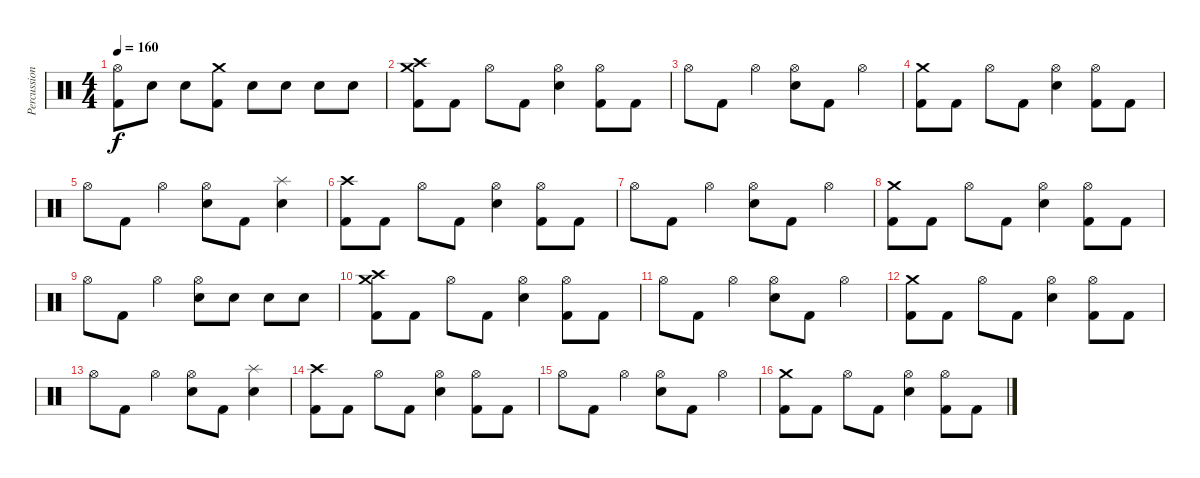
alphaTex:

\track ("Percussioni" "Percussion") {instrument percussion}
\staff {score}
\articulation defaults
\ts (4 4)
\tempo 160
\clef neutral
\ks c
("Hi-Hat (open)" "Kick (hit) 2").8{dy f} "Electric Snare (hit)".8 "Electric Snare (hit)".8 ("Crash medium (hit)" "Kick (hit) 2").8 "Electric Snare (hit)".8 "Electric Snare (hit)".8 "Electric Snare (hit)".8 "Electric Snare (hit)".8 |
("Crash high (hit)" "Crash medium (hit)" "Kick (hit) 2").8 "Kick (hit) 2".8 "Hi-Hat (open)".8 "Kick (hit) 2".8 ("Hi-Hat (open)" "Electric Snare (hit)").4 ("Hi-Hat (open)" "Kick (hit) 2").8 "Kick (hit) 2".8 |
"Hi-Hat (open)".8 "Kick (hit) 2".8 "Hi-Hat (open)".4 ("Hi-Hat (open)" "Electric Snare (hit)").8 "Kick (hit) 2".8 "Hi-Hat (open)".4 |
("Crash medium (hit)" "Kick (hit) 2").8 "Kick (hit) 2".8 "Hi-Hat (open)".8 "Kick (hit) 2".8 ("Hi-Hat (open)" "Electric Snare (hit)").4 ("Hi-Hat (open)" "Kick (hit) 2").8 "Kick (hit) 2".8 |
"Hi-Hat (open)".8 "Kick (hit) 2".8 "Hi-Hat (open)".4 ("Hi-Hat (open)" "Electric Snare (hit)").8 "Kick (hit) 2".8 ("Splash (hit)" "Electric Snare (hit)").4 |
("Crash high (hit)" "Kick (hit) 2").8 "Kick (hit) 2".8 "Hi-Hat (open)".8 "Kick (hit) 2".8 ("Hi-Hat (open)" "Electric Snare (hit)").4 ("Hi-Hat (open)" "Kick (hit) 2").8 "Kick (hit) 2".8 |
"Hi-Hat (open)".8 "Kick (hit) 2".8 "Hi-Hat (open)".4 ("Hi-Hat (open)" "Electric Snare (hit)").8 "Kick (hit) 2".8 "Hi-Hat (open)".4 |
("Crash medium (hit)" "Kick (hit) 2").8 "Kick (hit) 2".8 "Hi-Hat (open)".8 "Kick (hit) 2".8 ("Hi-Hat (open)" "Electric Snare (hit)").4 ("Hi-Hat (open)" "Kick (hit) 2").8 "Kick (hit) 2".8 |
"Hi-Hat (open)".8 "Kick (hit) 2".8 "Hi-Hat (open)".4 ("Hi-Hat (open)" "Electric Snare (hit)").8 "Electric Snare (hit)".8 "Electric Snare (hit)".8 "Electric Snare (hit)".8 |
("Crash high (hit)" "Crash medium (hit)" "Kick (hit) 2").8 "Kick (hit) 2".8 "Hi-Hat (open)".8 "Kick (hit) 2".8 ("Hi-Hat (open)" "Electric Snare (hit)").4 ("Hi-Hat (open)" "Kick (hit) 2").8 "Kick (hit) 2".8 |
"Hi-Hat (open)".8 "Kick (hit) 2".8 "Hi-Hat (open)".4 ("Hi-Hat (open)" "Electric Snare (hit)").8 "Kick (hit) 2".8 "Hi-Hat (open)".4 |
("Crash medium (hit)" "Kick (hit) 2").8 "Kick (hit) 2".8 "Hi-Hat (open)".8 "Kick (hit) 2".8 ("Hi-Hat (open)" "Electric Snare (hit)").4 ("Hi-Hat (open)" "Kick (hit) 2").8 "Kick (hit) 2".8 |
"Hi-Hat (open)".8 "Kick (hit) 2".8 "Hi-Hat (open)".4 ("Hi-Hat (open)" "Electric Snare (hit)").8 "Kick (hit) 2".8 ("Splash (hit)" "Electric Snare (hit)").4 |
("Crash high (hit)" "Kick (hit) 2").8 "Kick (hit) 2".8 "Hi-Hat (open)".8 "Kick (hit) 2".8 ("Hi-Hat (open)" "Electric Snare (hit)").4 ("Hi-Hat (open)" "Kick (hit) 2").8 "Kick (hit) 2".8 |
"Hi-Hat (open)".8 "Kick (hit) 2".8 "Hi-Hat (open)".4 ("Hi-Hat (open)" "Electric Snare (hit)").8 "Kick (hit) 2".8 "Hi-Hat (open)".4 |
("Crash medium (hit)" "Kick (hit) 2").8 "Kick (hit) 2".8 "Hi-Hat (open)".8 "Kick (hit) 2".8 ("Hi-Hat (open)" "Electric Snare (hit)").4 ("Hi-Hat (open)" "Kick (hit) 2").8 "Kick (hit) 2".8
